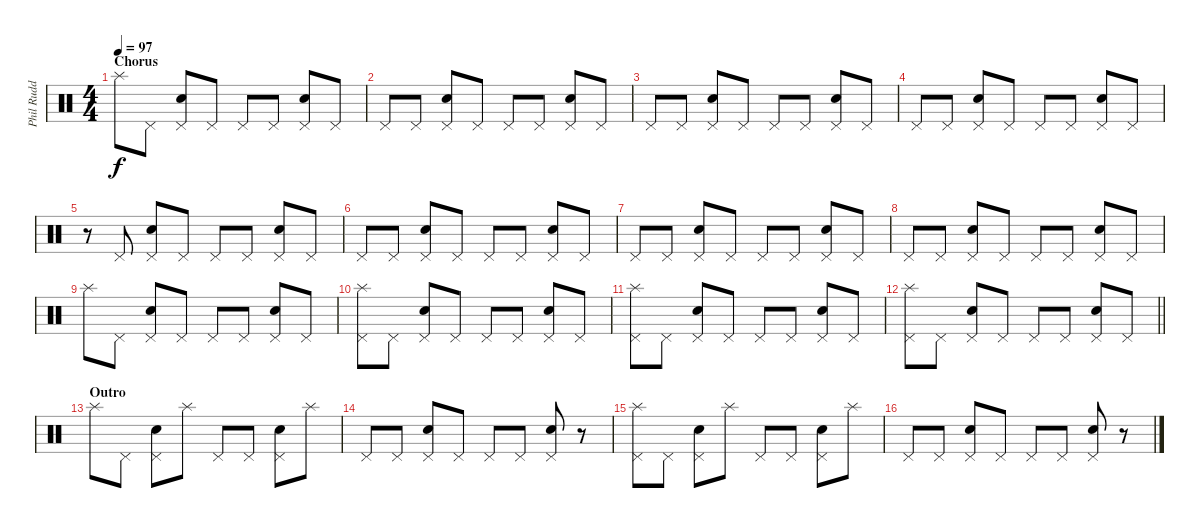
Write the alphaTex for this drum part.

\track ("Phil Rudd - Drums" "Phil Rudd ") {instrument percussion}
\staff {score}
\articulation defaults
\ts (4 4)
\section ("" "Chorus")
\tempo 97
\clef neutral
\ks c "Splash (hit)".8{dy f} "Pedal Hi-Hat (hit)".8
("Pedal Hi-Hat (hit)" "Snare (hit) 2").8 "Pedal Hi-Hat (hit)".8 "Pedal Hi-Hat (hit)".8 "Pedal Hi-Hat (hit)".8 ("Pedal Hi-Hat (hit)" "Snare (hit) 2").8 "Pedal Hi-Hat (hit)".8 |
"Pedal Hi-Hat (hit)".8 "Pedal Hi-Hat (hit)".8 ("Pedal Hi-Hat (hit)" "Snare (hit) 2").8 "Pedal Hi-Hat (hit)".8 "Pedal Hi-Hat (hit)".8 "Pedal Hi-Hat (hit)".8 ("Pedal Hi-Hat (hit)" "Snare (hit) 2").8 "Pedal Hi-Hat (hit)".8 |
"Pedal Hi-Hat (hit)".8 "Pedal Hi-Hat (hit)".8 ("Pedal Hi-Hat (hit)" "Snare (hit) 2").8 "Pedal Hi-Hat (hit)".8 "Pedal Hi-Hat (hit)".8 "Pedal Hi-Hat (hit)".8 ("Pedal Hi-Hat (hit)" "Snare (hit) 2").8 "Pedal Hi-Hat (hit)".8 |
"Pedal Hi-Hat (hit)".8 "Pedal Hi-Hat (hit)".8 ("Pedal Hi-Hat (hit)" "Snare (hit) 2").8 "Pedal Hi-Hat (hit)".8 "Pedal Hi-Hat (hit)".8 "Pedal Hi-Hat (hit)".8 ("Pedal Hi-Hat (hit)" "Snare (hit) 2").8 "Pedal Hi-Hat (hit)".8 |
r.8 "Pedal Hi-Hat (hit)".8 ("Pedal Hi-Hat (hit)" "Snare (hit) 2").8 "Pedal Hi-Hat (hit)".8 "Pedal Hi-Hat (hit)".8 "Pedal Hi-Hat (hit)".8 ("Pedal Hi-Hat (hit)" "Snare (hit) 2").8 "Pedal Hi-Hat (hit)".8 |
"Pedal Hi-Hat (hit)".8 "Pedal Hi-Hat (hit)".8 ("Pedal Hi-Hat (hit)" "Snare (hit) 2").8 "Pedal Hi-Hat (hit)".8 "Pedal Hi-Hat (hit)".8 "Pedal Hi-Hat (hit)".8 ("Pedal Hi-Hat (hit)" "Snare (hit) 2").8 "Pedal Hi-Hat (hit)".8 |
"Pedal Hi-Hat (hit)".8 "Pedal Hi-Hat (hit)".8 ("Pedal Hi-Hat (hit)" "Snare (hit) 2").8 "Pedal Hi-Hat (hit)".8 "Pedal Hi-Hat (hit)".8 "Pedal Hi-Hat (hit)".8 ("Pedal Hi-Hat (hit)" "Snare (hit) 2").8 "Pedal Hi-Hat (hit)".8 |
"Pedal Hi-Hat (hit)".8 "Pedal Hi-Hat (hit)".8 ("Pedal Hi-Hat (hit)" "Snare (hit) 2").8 "Pedal Hi-Hat (hit)".8 "Pedal Hi-Hat (hit)".8 "Pedal Hi-Hat (hit)".8 ("Pedal Hi-Hat (hit)" "Snare (hit) 2").8 "Pedal Hi-Hat (hit)".8 |
"Splash (hit)".8 "Pedal Hi-Hat (hit)".8 ("Pedal Hi-Hat (hit)" "Snare (hit) 2").8 "Pedal Hi-Hat (hit)".8 "Pedal Hi-Hat (hit)".8 "Pedal Hi-Hat (hit)".8 ("Pedal Hi-Hat (hit)" "Snare (hit) 2").8 "Pedal Hi-Hat (hit)".8 |
("Pedal Hi-Hat (hit)" "Splash (hit)").8 "Pedal Hi-Hat (hit)".8 ("Pedal Hi-Hat (hit)" "Snare (hit) 2").8 "Pedal Hi-Hat (hit)".8 "Pedal Hi-Hat (hit)".8 "Pedal Hi-Hat (hit)".8 ("Pedal Hi-Hat (hit)" "Snare (hit) 2").8 "Pedal Hi-Hat (hit)".8 |
("Pedal Hi-Hat (hit)" "Splash (hit)").8 "Pedal Hi-Hat (hit)".8 ("Pedal Hi-Hat (hit)" "Snare (hit) 2").8 "Pedal Hi-Hat (hit)".8 "Pedal Hi-Hat (hit)".8 "Pedal Hi-Hat (hit)".8 ("Pedal Hi-Hat (hit)" "Snare (hit) 2").8 "Pedal Hi-Hat (hit)".8 |
\barLineRight lightlight
("Pedal Hi-Hat (hit)" "Splash (hit)").8 "Pedal Hi-Hat (hit)".8 ("Pedal Hi-Hat (hit)" "Snare (hit) 2").8 "Pedal Hi-Hat (hit)".8 "Pedal Hi-Hat (hit)".8 "Pedal Hi-Hat (hit)".8 ("Pedal Hi-Hat (hit)" "Snare (hit) 2").8 "Pedal Hi-Hat (hit)".8 |
\section ("" "Outro")
"Splash (hit)".8 "Pedal Hi-Hat (hit)".8 ("Pedal Hi-Hat (hit)" "Snare (hit) 2").8 "Splash (hit)".8 "Pedal Hi-Hat (hit)".8 "Pedal Hi-Hat (hit)".8 ("Pedal Hi-Hat (hit)" "Snare (hit) 2").8 "Splash (hit)".8 |
"Pedal Hi-Hat (hit)".8 "Pedal Hi-Hat (hit)".8 ("Pedal Hi-Hat (hit)" "Snare (hit) 2").8 "Pedal Hi-Hat (hit)".8 "Pedal Hi-Hat (hit)".8 "Pedal Hi-Hat (hit)".8 ("Pedal Hi-Hat (hit)" "Snare (hit) 2").8 r.8 |
("Pedal Hi-Hat (hit)" "Splash (hit)").8 "Pedal Hi-Hat (hit)".8 ("Pedal Hi-Hat (hit)" "Snare (hit) 2").8 "Splash (hit)".8 "Pedal Hi-Hat (hit)".8 "Pedal Hi-Hat (hit)".8 ("Pedal Hi-Hat (hit)" "Snare (hit) 2").8 "Splash (hit)".8 |
"Pedal Hi-Hat (hit)".8 "Pedal Hi-Hat (hit)".8 ("Pedal Hi-Hat (hit)" "Snare (hit) 2").8 "Pedal Hi-Hat (hit)".8 "Pedal Hi-Hat (hit)".8 "Pedal Hi-Hat (hit)".8 ("Pedal Hi-Hat (hit)" "Snare (hit) 2").8 r.8
